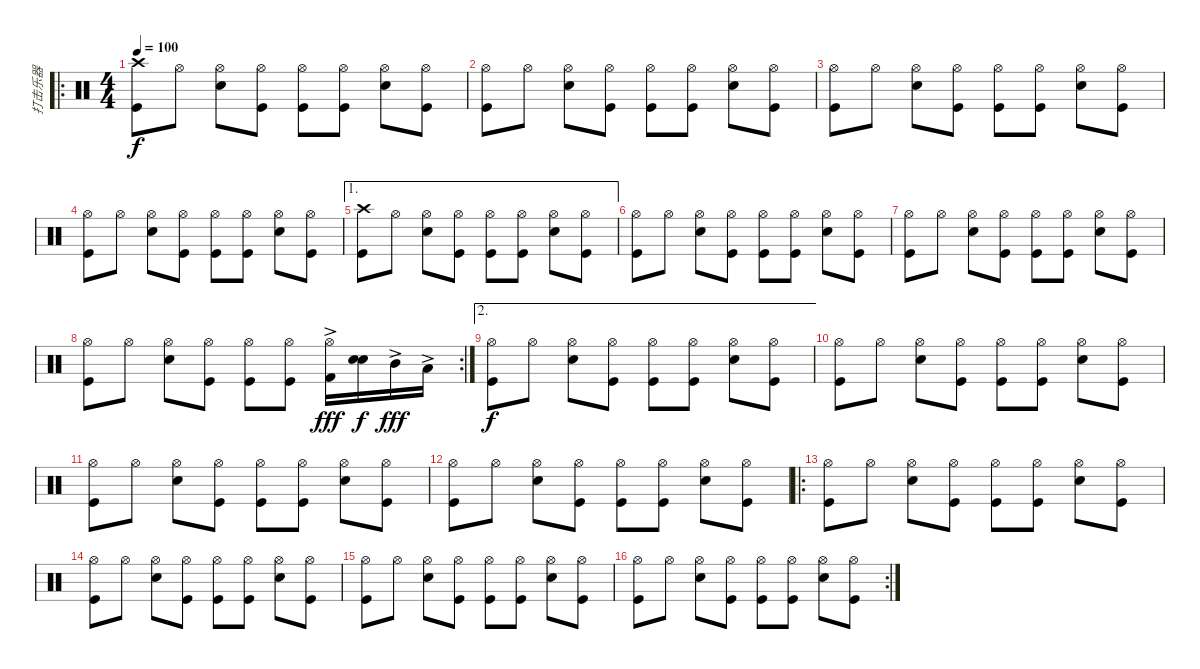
\track ("打击乐器" "打击乐器") {instrument percussion}
\staff {score}
\articulation defaults
\ro
\ts (4 4)
\tempo 100
\clef neutral
\ks c
("Crash high (hit)" "Kick (hit)").8{dy f} "Hi-Hat (open)".8 ("Hi-Hat (open)" "Snare (hit) 2").8 ("Hi-Hat (open)" "Kick (hit)").8 ("Hi-Hat (open)" "Kick (hit)").8 ("Hi-Hat (open)" "Kick (hit)").8 ("Hi-Hat (open)" "Snare (hit) 2").8 ("Hi-Hat (open)" "Kick (hit)").8 |
("Hi-Hat (open)" "Kick (hit)").8 "Hi-Hat (open)".8 ("Hi-Hat (open)" "Snare (hit) 2").8 ("Hi-Hat (open)" "Kick (hit)").8 ("Hi-Hat (open)" "Kick (hit)").8 ("Hi-Hat (open)" "Kick (hit)").8 ("Hi-Hat (open)" "Snare (hit) 2").8 ("Hi-Hat (open)" "Kick (hit)").8 |
("Hi-Hat (open)" "Kick (hit)").8 "Hi-Hat (open)".8 ("Hi-Hat (open)" "Snare (hit) 2").8 ("Hi-Hat (open)" "Kick (hit)").8 ("Hi-Hat (open)" "Kick (hit)").8 ("Hi-Hat (open)" "Kick (hit)").8 ("Hi-Hat (open)" "Snare (hit) 2").8 ("Hi-Hat (open)" "Kick (hit)").8 |
("Hi-Hat (open)" "Kick (hit)").8 "Hi-Hat (open)".8 ("Hi-Hat (open)" "Snare (hit) 2").8 ("Hi-Hat (open)" "Kick (hit)").8 ("Hi-Hat (open)" "Kick (hit)").8 ("Hi-Hat (open)" "Kick (hit)").8 ("Hi-Hat (open)" "Snare (hit) 2").8 ("Hi-Hat (open)" "Kick (hit)").8 |
\ae 1
("Crash high (hit)" "Kick (hit)").8 "Hi-Hat (open)".8 ("Hi-Hat (open)" "Snare (hit) 2").8 ("Hi-Hat (open)" "Kick (hit)").8 ("Hi-Hat (open)" "Kick (hit)").8 ("Hi-Hat (open)" "Kick (hit)").8 ("Hi-Hat (open)" "Snare (hit) 2").8 ("Hi-Hat (open)" "Kick (hit)").8 |
("Hi-Hat (open)" "Kick (hit)").8 "Hi-Hat (open)".8 ("Hi-Hat (open)" "Snare (hit) 2").8 ("Hi-Hat (open)" "Kick (hit)").8 ("Hi-Hat (open)" "Kick (hit)").8 ("Hi-Hat (open)" "Kick (hit)").8 ("Hi-Hat (open)" "Snare (hit) 2").8 ("Hi-Hat (open)" "Kick (hit)").8 |
("Hi-Hat (open)" "Kick (hit)").8 "Hi-Hat (open)".8 ("Hi-Hat (open)" "Snare (hit) 2").8 ("Hi-Hat (open)" "Kick (hit)").8 ("Hi-Hat (open)" "Kick (hit)").8 ("Hi-Hat (open)" "Kick (hit)").8 ("Hi-Hat (open)" "Snare (hit) 2").8 ("Hi-Hat (open)" "Kick (hit)").8 |
\rc 2
("Hi-Hat (open)" "Kick (hit)").8 "Hi-Hat (open)".8 ("Hi-Hat (open)" "Snare (hit) 2").8 ("Hi-Hat (open)" "Kick (hit)").8 ("Hi-Hat (open)" "Kick (hit)").8 ("Hi-Hat (open)" "Kick (hit)").8 ("Hi-Hat (open)" "Kick (hit) 2"{ac}).16{dy fff} ("Snare (hit) 2" "Snare (hit) 2").16{dy f} "Mid Tom (hit)"{ac}.16{dy fff} "Low Tom (hit)"{ac}.16 |
\ae 2
("Hi-Hat (open)" "Kick (hit)").8{dy f} "Hi-Hat (open)".8 ("Hi-Hat (open)" "Snare (hit) 2").8 ("Hi-Hat (open)" "Kick (hit)").8 ("Hi-Hat (open)" "Kick (hit)").8 ("Hi-Hat (open)" "Kick (hit)").8 ("Hi-Hat (open)" "Snare (hit) 2").8 ("Hi-Hat (open)" "Kick (hit)").8 |
("Hi-Hat (open)" "Kick (hit)").8 "Hi-Hat (open)".8 ("Hi-Hat (open)" "Snare (hit) 2").8 ("Hi-Hat (open)" "Kick (hit)").8 ("Hi-Hat (open)" "Kick (hit)").8 ("Hi-Hat (open)" "Kick (hit)").8 ("Hi-Hat (open)" "Snare (hit) 2").8 ("Hi-Hat (open)" "Kick (hit)").8 |
("Hi-Hat (open)" "Kick (hit)").8 "Hi-Hat (open)".8 ("Hi-Hat (open)" "Snare (hit) 2").8 ("Hi-Hat (open)" "Kick (hit)").8 ("Hi-Hat (open)" "Kick (hit)").8 ("Hi-Hat (open)" "Kick (hit)").8 ("Hi-Hat (open)" "Snare (hit) 2").8 ("Hi-Hat (open)" "Kick (hit)").8 |
("Hi-Hat (open)" "Kick (hit)").8 "Hi-Hat (open)".8 ("Hi-Hat (open)" "Snare (hit) 2").8 ("Hi-Hat (open)" "Kick (hit)").8 ("Hi-Hat (open)" "Kick (hit)").8 ("Hi-Hat (open)" "Kick (hit)").8 ("Hi-Hat (open)" "Snare (hit) 2").8 ("Hi-Hat (open)" "Kick (hit)").8 |
\ro
("Hi-Hat (open)" "Kick (hit)").8 "Hi-Hat (open)".8 ("Hi-Hat (open)" "Snare (hit) 2").8 ("Hi-Hat (open)" "Kick (hit)").8 ("Hi-Hat (open)" "Kick (hit)").8 ("Hi-Hat (open)" "Kick (hit)").8 ("Hi-Hat (open)" "Snare (hit) 2").8 ("Hi-Hat (open)" "Kick (hit)").8 |
("Hi-Hat (open)" "Kick (hit)").8 "Hi-Hat (open)".8 ("Hi-Hat (open)" "Snare (hit) 2").8 ("Hi-Hat (open)" "Kick (hit)").8 ("Hi-Hat (open)" "Kick (hit)").8 ("Hi-Hat (open)" "Kick (hit)").8 ("Hi-Hat (open)" "Snare (hit) 2").8 ("Hi-Hat (open)" "Kick (hit)").8 |
("Hi-Hat (open)" "Kick (hit)").8 "Hi-Hat (open)".8 ("Hi-Hat (open)" "Snare (hit) 2").8 ("Hi-Hat (open)" "Kick (hit)").8 ("Hi-Hat (open)" "Kick (hit)").8 ("Hi-Hat (open)" "Kick (hit)").8 ("Hi-Hat (open)" "Snare (hit) 2").8 ("Hi-Hat (open)" "Kick (hit)").8 |
\rc 2
("Hi-Hat (open)" "Kick (hit)").8 "Hi-Hat (open)".8 ("Hi-Hat (open)" "Snare (hit) 2").8 ("Hi-Hat (open)" "Kick (hit)").8 ("Hi-Hat (open)" "Kick (hit)").8 ("Hi-Hat (open)" "Kick (hit)").8 ("Hi-Hat (open)" "Snare (hit) 2").8 ("Hi-Hat (open)" "Kick (hit)").8
